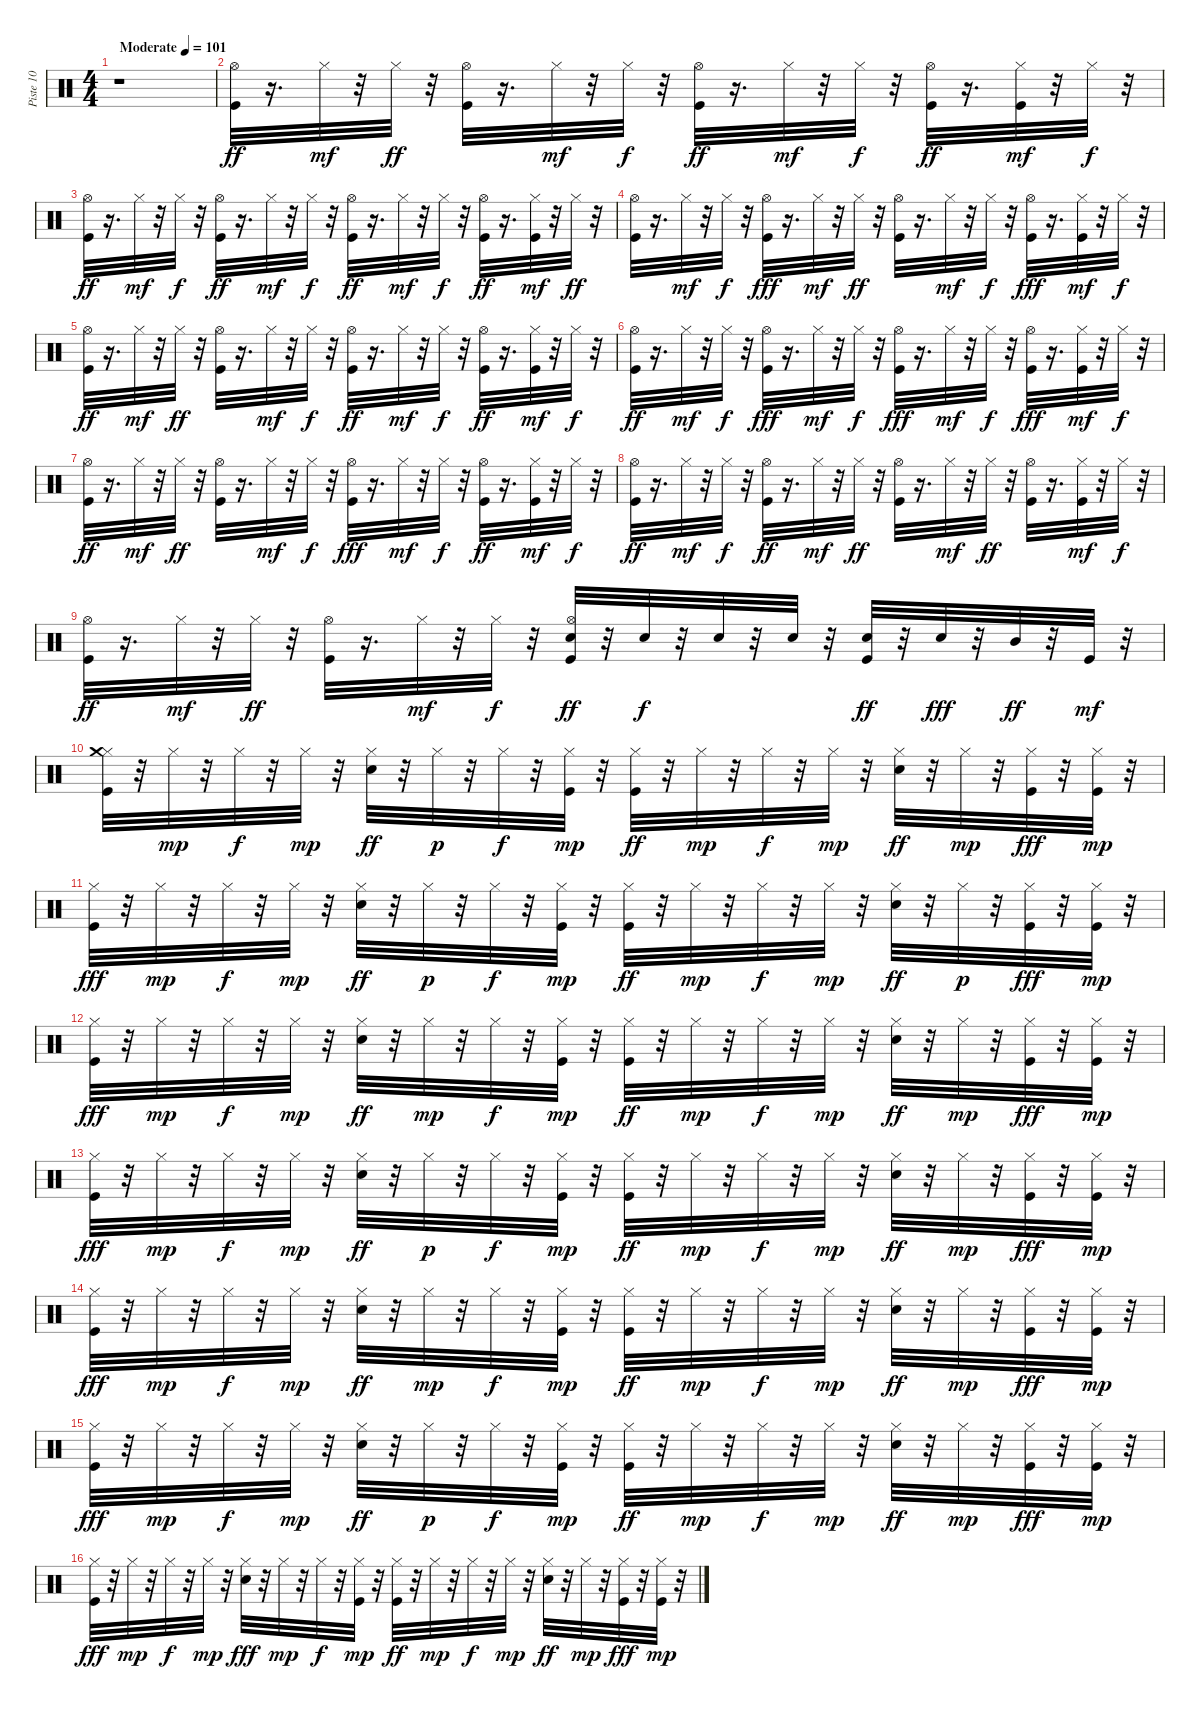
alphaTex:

\track ("Piste 10" "Piste 10") {instrument percussion}
\staff {score}
\articulation defaults
\ts (4 4)
\tempo (101 "Moderate")
\clef neutral
\ks c
r.1{dy ff} |
("Kick (hit)" "Hi-Hat (open)").32 r.16{d} "Hi-Hat (closed)".32{dy mf} r.32 "Hi-Hat (closed)".32{dy ff} r.32 ("Kick (hit)" "Hi-Hat (open)").32 r.16{d} "Hi-Hat (closed)".32{dy mf} r.32 "Hi-Hat (closed)".32{dy f} r.32 ("Kick (hit)" "Hi-Hat (open)").32{dy ff} r.16{d} "Hi-Hat (closed)".32{dy mf} r.32 "Hi-Hat (closed)".32{dy f} r.32 ("Kick (hit)" "Hi-Hat (open)").32{dy ff} r.16{d} ("Kick (hit)" "Hi-Hat (closed)").32{dy mf} r.32 "Hi-Hat (closed)".32{dy f} r.32 |
("Kick (hit)" "Hi-Hat (open)").32{dy ff} r.16{d} "Hi-Hat (closed)".32{dy mf} r.32 "Hi-Hat (closed)".32{dy f} r.32 ("Kick (hit)" "Hi-Hat (open)").32{dy ff} r.16{d} "Hi-Hat (closed)".32{dy mf} r.32 "Hi-Hat (closed)".32{dy f} r.32 ("Kick (hit)" "Hi-Hat (open)").32{dy ff} r.16{d} "Hi-Hat (closed)".32{dy mf} r.32 "Hi-Hat (closed)".32{dy f} r.32 ("Kick (hit)" "Hi-Hat (open)").32{dy ff} r.16{d} ("Kick (hit)" "Hi-Hat (closed)").32{dy mf} r.32 "Hi-Hat (closed)".32{dy ff} r.32 |
("Kick (hit)" "Hi-Hat (open)").32 r.16{d} "Hi-Hat (closed)".32{dy mf} r.32 "Hi-Hat (closed)".32{dy f} r.32 ("Kick (hit)" "Hi-Hat (open)").32{dy fff} r.16{d} "Hi-Hat (closed)".32{dy mf} r.32 "Hi-Hat (closed)".32{dy ff} r.32 ("Kick (hit)" "Hi-Hat (open)").32 r.16{d} "Hi-Hat (closed)".32{dy mf} r.32 "Hi-Hat (closed)".32{dy f} r.32 ("Kick (hit)" "Hi-Hat (open)").32{dy fff} r.16{d} ("Kick (hit)" "Hi-Hat (closed)").32{dy mf} r.32 "Hi-Hat (closed)".32{dy f} r.32 |
("Kick (hit)" "Hi-Hat (open)").32{dy ff} r.16{d} "Hi-Hat (closed)".32{dy mf} r.32 "Hi-Hat (closed)".32{dy ff} r.32 ("Kick (hit)" "Hi-Hat (open)").32 r.16{d} "Hi-Hat (closed)".32{dy mf} r.32 "Hi-Hat (closed)".32{dy f} r.32 ("Kick (hit)" "Hi-Hat (open)").32{dy ff} r.16{d} "Hi-Hat (closed)".32{dy mf} r.32 "Hi-Hat (closed)".32{dy f} r.32 ("Kick (hit)" "Hi-Hat (open)").32{dy ff} r.16{d} ("Kick (hit)" "Hi-Hat (closed)").32{dy mf} r.32 "Hi-Hat (closed)".32{dy f} r.32 |
("Kick (hit)" "Hi-Hat (open)").32{dy ff} r.16{d} "Hi-Hat (closed)".32{dy mf} r.32 "Hi-Hat (closed)".32{dy f} r.32 ("Kick (hit)" "Hi-Hat (open)").32{dy fff} r.16{d} "Hi-Hat (closed)".32{dy mf} r.32 "Hi-Hat (closed)".32{dy f} r.32 ("Kick (hit)" "Hi-Hat (open)").32{dy fff} r.16{d} "Hi-Hat (closed)".32{dy mf} r.32 "Hi-Hat (closed)".32{dy f} r.32 ("Kick (hit)" "Hi-Hat (open)").32{dy fff} r.16{d} ("Kick (hit)" "Hi-Hat (closed)").32{dy mf} r.32 "Hi-Hat (closed)".32{dy f} r.32 |
("Kick (hit)" "Hi-Hat (open)").32{dy ff} r.16{d} "Hi-Hat (closed)".32{dy mf} r.32 "Hi-Hat (closed)".32{dy ff} r.32 ("Kick (hit)" "Hi-Hat (open)").32 r.16{d} "Hi-Hat (closed)".32{dy mf} r.32 "Hi-Hat (closed)".32{dy f} r.32 ("Kick (hit)" "Hi-Hat (open)").32{dy fff} r.16{d} "Hi-Hat (closed)".32{dy mf} r.32 "Hi-Hat (closed)".32{dy f} r.32 ("Kick (hit)" "Hi-Hat (open)").32{dy ff} r.16{d} ("Kick (hit)" "Hi-Hat (closed)").32{dy mf} r.32 "Hi-Hat (closed)".32{dy f} r.32 |
("Kick (hit)" "Hi-Hat (open)").32{dy ff} r.16{d} "Hi-Hat (closed)".32{dy mf} r.32 "Hi-Hat (closed)".32{dy f} r.32 ("Kick (hit)" "Hi-Hat (open)").32{dy ff} r.16{d} "Hi-Hat (closed)".32{dy mf} r.32 "Hi-Hat (closed)".32{dy ff} r.32 ("Kick (hit)" "Hi-Hat (open)").32 r.16{d} "Hi-Hat (closed)".32{dy mf} r.32 "Hi-Hat (closed)".32{dy ff} r.32 ("Kick (hit)" "Hi-Hat (open)").32 r.16{d} ("Kick (hit)" "Hi-Hat (closed)").32{dy mf} r.32 "Hi-Hat (closed)".32{dy f} r.32 |
("Kick (hit)" "Hi-Hat (open)").32{dy ff} r.16{d} "Hi-Hat (closed)".32{dy mf} r.32 "Hi-Hat (closed)".32{dy ff} r.32 ("Kick (hit)" "Hi-Hat (open)").32 r.16{d} "Hi-Hat (closed)".32{dy mf} r.32 "Hi-Hat (closed)".32{dy f} r.32 ("Kick (hit)" "Electric Snare (hit)" "Hi-Hat (open)").32{dy ff} r.32 "Electric Snare (hit)".32{dy f} r.32 "Electric Snare (hit)".32 r.32 "Electric Snare (hit)".32 r.32 ("Kick (hit)" "Electric Snare (hit)").32{dy ff} r.32 "Electric Snare (hit)".32{dy fff} r.32 "Mid Tom (hit)".32{dy ff} r.32 "Kick (hit)".32{dy mf} r.32 |
("Kick (hit)" "Hi-Hat (closed)" "Crash medium (hit)").32 r.32 "Hi-Hat (closed)".32{dy mp} r.32 "Hi-Hat (closed)".32{dy f} r.32 "Hi-Hat (closed)".32{dy mp} r.32 ("Electric Snare (hit)" "Hi-Hat (closed)").32{dy ff} r.32 "Hi-Hat (closed)".32{dy p} r.32 "Hi-Hat (closed)".32{dy f} r.32 ("Kick (hit)" "Hi-Hat (closed)").32{dy mp} r.32 ("Kick (hit)" "Hi-Hat (closed)").32{dy ff} r.32 "Hi-Hat (closed)".32{dy mp} r.32 "Hi-Hat (closed)".32{dy f} r.32 "Hi-Hat (closed)".32{dy mp} r.32 ("Electric Snare (hit)" "Hi-Hat (closed)").32{dy ff} r.32 "Hi-Hat (closed)".32{dy mp} r.32 ("Kick (hit)" "Hi-Hat (closed)").32{dy fff} r.32 ("Kick (hit)" "Hi-Hat (closed)").32{dy mp} r.32 |
("Kick (hit)" "Hi-Hat (closed)").32{dy fff} r.32 "Hi-Hat (closed)".32{dy mp} r.32 "Hi-Hat (closed)".32{dy f} r.32 "Hi-Hat (closed)".32{dy mp} r.32 ("Electric Snare (hit)" "Hi-Hat (closed)").32{dy ff} r.32 "Hi-Hat (closed)".32{dy p} r.32 "Hi-Hat (closed)".32{dy f} r.32 ("Kick (hit)" "Hi-Hat (closed)").32{dy mp} r.32 ("Kick (hit)" "Hi-Hat (closed)").32{dy ff} r.32 "Hi-Hat (closed)".32{dy mp} r.32 "Hi-Hat (closed)".32{dy f} r.32 "Hi-Hat (closed)".32{dy mp} r.32 ("Electric Snare (hit)" "Hi-Hat (closed)").32{dy ff} r.32 "Hi-Hat (closed)".32{dy p} r.32 ("Kick (hit)" "Hi-Hat (closed)").32{dy fff} r.32 ("Kick (hit)" "Hi-Hat (closed)").32{dy mp} r.32 |
("Kick (hit)" "Hi-Hat (closed)").32{dy fff} r.32 "Hi-Hat (closed)".32{dy mp} r.32 "Hi-Hat (closed)".32{dy f} r.32 "Hi-Hat (closed)".32{dy mp} r.32 ("Electric Snare (hit)" "Hi-Hat (closed)").32{dy ff} r.32 "Hi-Hat (closed)".32{dy mp} r.32 "Hi-Hat (closed)".32{dy f} r.32 ("Kick (hit)" "Hi-Hat (closed)").32{dy mp} r.32 ("Kick (hit)" "Hi-Hat (closed)").32{dy ff} r.32 "Hi-Hat (closed)".32{dy mp} r.32 "Hi-Hat (closed)".32{dy f} r.32 "Hi-Hat (closed)".32{dy mp} r.32 ("Electric Snare (hit)" "Hi-Hat (closed)").32{dy ff} r.32 "Hi-Hat (closed)".32{dy mp} r.32 ("Kick (hit)" "Hi-Hat (closed)").32{dy fff} r.32 ("Kick (hit)" "Hi-Hat (closed)").32{dy mp} r.32 |
("Kick (hit)" "Hi-Hat (closed)").32{dy fff} r.32 "Hi-Hat (closed)".32{dy mp} r.32 "Hi-Hat (closed)".32{dy f} r.32 "Hi-Hat (closed)".32{dy mp} r.32 ("Electric Snare (hit)" "Hi-Hat (closed)").32{dy ff} r.32 "Hi-Hat (closed)".32{dy p} r.32 "Hi-Hat (closed)".32{dy f} r.32 ("Kick (hit)" "Hi-Hat (closed)").32{dy mp} r.32 ("Kick (hit)" "Hi-Hat (closed)").32{dy ff} r.32 "Hi-Hat (closed)".32{dy mp} r.32 "Hi-Hat (closed)".32{dy f} r.32 "Hi-Hat (closed)".32{dy mp} r.32 ("Electric Snare (hit)" "Hi-Hat (closed)").32{dy ff} r.32 "Hi-Hat (closed)".32{dy mp} r.32 ("Kick (hit)" "Hi-Hat (closed)").32{dy fff} r.32 ("Kick (hit)" "Hi-Hat (closed)").32{dy mp} r.32 |
("Kick (hit)" "Hi-Hat (closed)").32{dy fff} r.32 "Hi-Hat (closed)".32{dy mp} r.32 "Hi-Hat (closed)".32{dy f} r.32 "Hi-Hat (closed)".32{dy mp} r.32 ("Electric Snare (hit)" "Hi-Hat (closed)").32{dy ff} r.32 "Hi-Hat (closed)".32{dy mp} r.32 "Hi-Hat (closed)".32{dy f} r.32 ("Kick (hit)" "Hi-Hat (closed)").32{dy mp} r.32 ("Kick (hit)" "Hi-Hat (closed)").32{dy ff} r.32 "Hi-Hat (closed)".32{dy mp} r.32 "Hi-Hat (closed)".32{dy f} r.32 "Hi-Hat (closed)".32{dy mp} r.32 ("Electric Snare (hit)" "Hi-Hat (closed)").32{dy ff} r.32 "Hi-Hat (closed)".32{dy mp} r.32 ("Kick (hit)" "Hi-Hat (closed)").32{dy fff} r.32 ("Kick (hit)" "Hi-Hat (closed)").32{dy mp} r.32 |
("Kick (hit)" "Hi-Hat (closed)").32{dy fff} r.32 "Hi-Hat (closed)".32{dy mp} r.32 "Hi-Hat (closed)".32{dy f} r.32 "Hi-Hat (closed)".32{dy mp} r.32 ("Electric Snare (hit)" "Hi-Hat (closed)").32{dy ff} r.32 "Hi-Hat (closed)".32{dy p} r.32 "Hi-Hat (closed)".32{dy f} r.32 ("Kick (hit)" "Hi-Hat (closed)").32{dy mp} r.32 ("Kick (hit)" "Hi-Hat (closed)").32{dy ff} r.32 "Hi-Hat (closed)".32{dy mp} r.32 "Hi-Hat (closed)".32{dy f} r.32 "Hi-Hat (closed)".32{dy mp} r.32 ("Electric Snare (hit)" "Hi-Hat (closed)").32{dy ff} r.32 "Hi-Hat (closed)".32{dy mp} r.32 ("Kick (hit)" "Hi-Hat (closed)").32{dy fff} r.32 ("Kick (hit)" "Hi-Hat (closed)").32{dy mp} r.32 |
("Kick (hit)" "Hi-Hat (closed)").32{dy fff} r.32 "Hi-Hat (closed)".32{dy mp} r.32 "Hi-Hat (closed)".32{dy f} r.32 "Hi-Hat (closed)".32{dy mp} r.32 ("Electric Snare (hit)" "Hi-Hat (closed)").32{dy fff} r.32 "Hi-Hat (closed)".32{dy mp} r.32 "Hi-Hat (closed)".32{dy f} r.32 ("Kick (hit)" "Hi-Hat (closed)").32{dy mp} r.32 ("Kick (hit)" "Hi-Hat (closed)").32{dy ff} r.32 "Hi-Hat (closed)".32{dy mp} r.32 "Hi-Hat (closed)".32{dy f} r.32 "Hi-Hat (closed)".32{dy mp} r.32 ("Electric Snare (hit)" "Hi-Hat (closed)").32{dy ff} r.32 "Hi-Hat (closed)".32{dy mp} r.32 ("Kick (hit)" "Hi-Hat (closed)").32{dy fff} r.32 ("Kick (hit)" "Hi-Hat (closed)").32{dy mp} r.32
